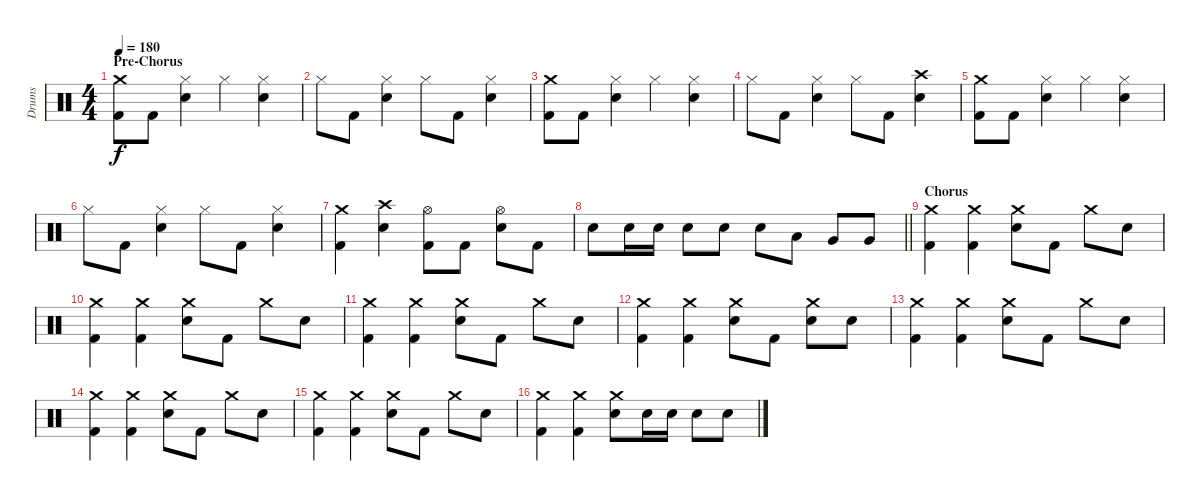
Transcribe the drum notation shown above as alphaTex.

\track ("Drums" "Drums") {instrument percussion}
\staff {score}
\articulation defaults
\ts (4 4)
\section ("" "Pre-Chorus")
\tempo 180
\clef neutral
\ks c
("Crash medium (hit)" "Kick (hit) 2").8{dy f} "Kick (hit) 2".8 ("Hi-Hat (closed)" "Electric Snare (hit)").4 "Hi-Hat (closed)".4 ("Hi-Hat (closed)" "Electric Snare (hit)").4 |
"Hi-Hat (closed)".8 "Kick (hit) 2".8 ("Hi-Hat (closed)" "Electric Snare (hit)").4 "Hi-Hat (closed)".8 "Kick (hit) 2".8 ("Hi-Hat (closed)" "Electric Snare (hit)").4 |
("Crash medium (hit)" "Kick (hit) 2").8 "Kick (hit) 2".8 ("Hi-Hat (closed)" "Electric Snare (hit)").4 "Hi-Hat (closed)".4 ("Hi-Hat (closed)" "Electric Snare (hit)").4 |
"Hi-Hat (closed)".8 "Kick (hit) 2".8 ("Hi-Hat (closed)" "Electric Snare (hit)").4 "Hi-Hat (closed)".8 "Kick (hit) 2".8 ("Crash high (hit)" "Electric Snare (hit)").4 |
("Crash medium (hit)" "Kick (hit) 2").8 "Kick (hit) 2".8 ("Hi-Hat (closed)" "Electric Snare (hit)").4 "Hi-Hat (closed)".4 ("Hi-Hat (closed)" "Electric Snare (hit)").4 |
"Hi-Hat (closed)".8 "Kick (hit) 2".8 ("Hi-Hat (closed)" "Electric Snare (hit)").4 "Hi-Hat (closed)".8 "Kick (hit) 2".8 ("Hi-Hat (closed)" "Electric Snare (hit)").4 |
("Crash medium (hit)" "Kick (hit) 2").4 ("Crash high (hit)" "Electric Snare (hit)").4 ("Hi-Hat (open)" "Kick (hit) 2").8 "Kick (hit) 2".8 ("Hi-Hat (open)" "Electric Snare (hit)").8 "Kick (hit) 2".8 |
\barLineRight lightlight "Electric Snare (hit)".8 "Electric Snare (hit)".16 "Electric Snare (hit)".16 "Electric Snare (hit)".8 "Electric Snare (hit)".8 "Electric Snare (hit)".8 "Low Tom (hit)".8 "Very Low Tom (hit)".8 "Very Low Tom (hit)".8
|
\section ("" "Chorus")
("Crash medium (hit)" "Kick (hit) 2").4 ("Crash medium (hit)" "Kick (hit) 2").4 ("Crash medium (hit)" "Electric Snare (hit)").8 "Kick (hit) 2".8 "Crash medium (hit)".8 "Electric Snare (hit)".8 |
("Crash medium (hit)" "Kick (hit) 2").4 ("Crash medium (hit)" "Kick (hit) 2").4 ("Crash medium (hit)" "Electric Snare (hit)").8 "Kick (hit) 2".8 "Crash medium (hit)".8 "Electric Snare (hit)".8 |
("Crash medium (hit)" "Kick (hit) 2").4 ("Crash medium (hit)" "Kick (hit) 2").4 ("Crash medium (hit)" "Electric Snare (hit)").8 "Kick (hit) 2".8 "Crash medium (hit)".8 "Electric Snare (hit)".8 |
("Crash medium (hit)" "Kick (hit) 2").4 ("Crash medium (hit)" "Kick (hit) 2").4 ("Crash medium (hit)" "Electric Snare (hit)").8 "Kick (hit) 2".8 ("Crash medium (hit)" "Electric Snare (hit)").8 "Electric Snare (hit)".8 |
("Crash medium (hit)" "Kick (hit) 2").4 ("Crash medium (hit)" "Kick (hit) 2").4 ("Crash medium (hit)" "Electric Snare (hit)").8 "Kick (hit) 2".8 "Crash medium (hit)".8 "Electric Snare (hit)".8 |
("Crash medium (hit)" "Kick (hit) 2").4 ("Crash medium (hit)" "Kick (hit) 2").4 ("Crash medium (hit)" "Electric Snare (hit)").8 "Kick (hit) 2".8 "Crash medium (hit)".8 "Electric Snare (hit)".8 |
("Crash medium (hit)" "Kick (hit) 2").4 ("Crash medium (hit)" "Kick (hit) 2").4 ("Crash medium (hit)" "Electric Snare (hit)").8 "Kick (hit) 2".8 "Crash medium (hit)".8 "Electric Snare (hit)".8 |
("Crash medium (hit)" "Kick (hit) 2").4 ("Crash medium (hit)" "Kick (hit) 2").4 ("Crash medium (hit)" "Electric Snare (hit)").8 "Electric Snare (hit)".16 "Electric Snare (hit)".16 "Electric Snare (hit)".8 "Electric Snare (hit)".8
